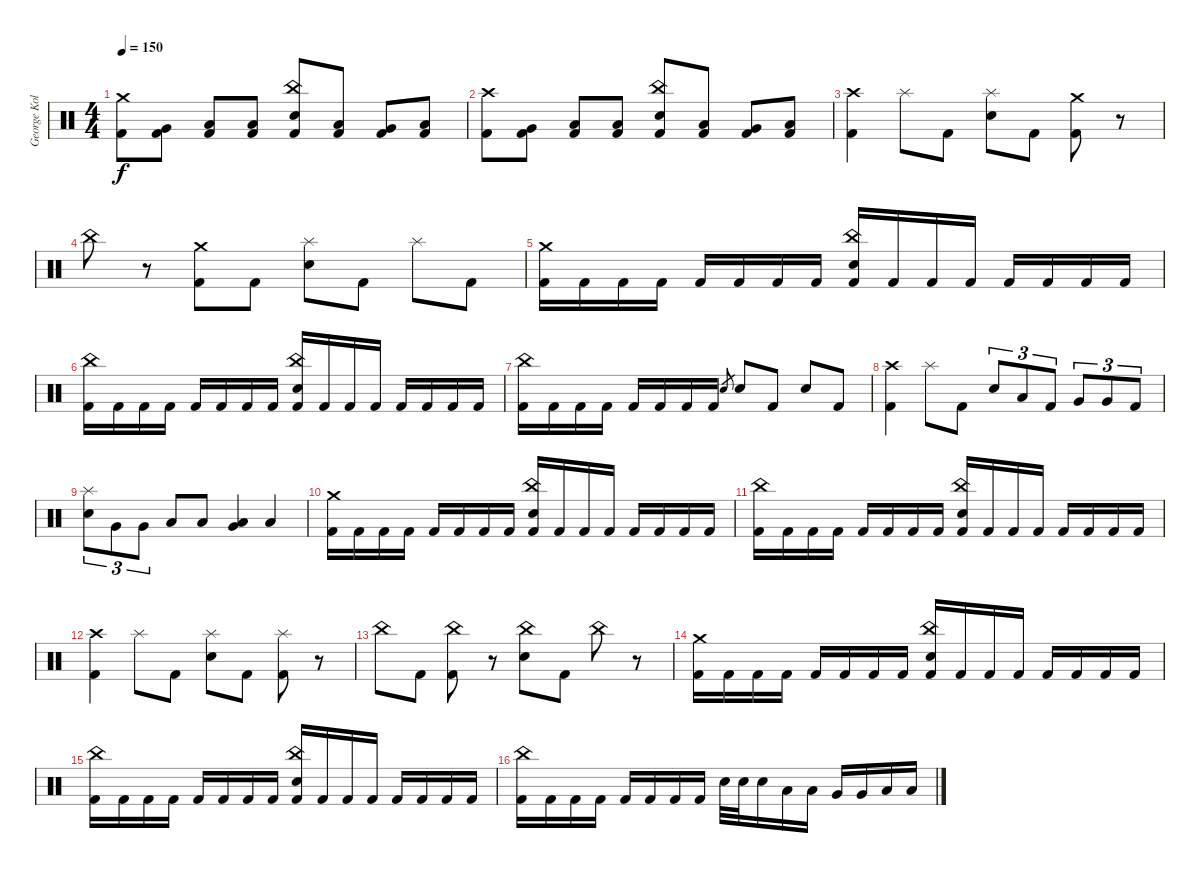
\track ("George Kollias" "George Kol") {instrument percussion}
\staff {score}
\articulation defaults
\ts (4 4)
\tempo 150
\clef neutral
\ks c
("Crash medium (hit)" "Kick (hit) 2").8{dy f} ("Very Low Tom (hit)" "Kick (hit) 2").8 ("Low Floor Tom (hit)" "Kick (hit) 2").8 ("Low Floor Tom (hit)" "Kick (hit) 2").8 ("China (hit)" "Electric Snare (hit)" "Kick (hit) 2").8 ("Low Floor Tom (hit)" "Kick (hit) 2").8 ("Very Low Tom (hit)" "Kick (hit) 2").8 ("Low Floor Tom (hit)" "Kick (hit) 2").8 |
("Crash high (hit)" "Kick (hit) 2").8 ("Very Low Tom (hit)" "Kick (hit) 2").8 ("Low Floor Tom (hit)" "Kick (hit) 2").8 ("Low Floor Tom (hit)" "Kick (hit) 2").8 ("China (hit)" "Electric Snare (hit)" "Kick (hit) 2").8 ("Low Floor Tom (hit)" "Kick (hit) 2").8 ("Very Low Tom (hit)" "Kick (hit) 2").8 ("Low Floor Tom (hit)" "Kick (hit) 2").8 |
("Crash high (hit)" "Kick (hit) 2").4 "Splash (hit)".8 "Kick (hit) 2".8 ("Splash (hit)" "Electric Snare (hit)").8 "Kick (hit) 2".8 ("Crash medium (hit)" "Kick (hit) 2").8 r.8 |
"China (hit)".8 r.8 ("Crash medium (hit)" "Kick (hit) 2").8 "Kick (hit) 2".8 ("Splash (hit)" "Electric Snare (hit)").8 "Kick (hit) 2".8 "Splash (hit)".8 "Kick (hit) 2".8 |
("Crash medium (hit)" "Kick (hit) 2").16 "Kick (hit) 2".16 "Kick (hit) 2".16 "Kick (hit) 2".16 "Kick (hit) 2".16 "Kick (hit) 2".16 "Kick (hit) 2".16 "Kick (hit) 2".16 ("China (hit)" "Electric Snare (hit)" "Kick (hit) 2").16 "Kick (hit) 2".16 "Kick (hit) 2".16 "Kick (hit) 2".16 "Kick (hit) 2".16 "Kick (hit) 2".16 "Kick (hit) 2".16 "Kick (hit) 2".16 |
("China (hit)" "Kick (hit) 2").16 "Kick (hit) 2".16 "Kick (hit) 2".16 "Kick (hit) 2".16 "Kick (hit) 2".16 "Kick (hit) 2".16 "Kick (hit) 2".16 "Kick (hit) 2".16 ("China (hit)" "Electric Snare (hit)" "Kick (hit) 2").16 "Kick (hit) 2".16 "Kick (hit) 2".16 "Kick (hit) 2".16 "Kick (hit) 2".16 "Kick (hit) 2".16 "Kick (hit) 2".16 "Kick (hit) 2".16 |
("China (hit)" "Kick (hit) 2").16 "Kick (hit) 2".16 "Kick (hit) 2".16 "Kick (hit) 2".16 "Kick (hit) 2".16 "Kick (hit) 2".16 "Kick (hit) 2".16 "Kick (hit) 2".16 "Electric Snare (hit)".8{gr} "Electric Snare (hit)".8 "Kick (hit) 2".8 "Electric Snare (hit)".8 "Kick (hit) 2".8 |
("Crash high (hit)" "Kick (hit) 2").4 "Splash (hit)".8 "Kick (hit) 2".8 "Electric Snare (hit)".8{tu (3 2)} "Low Tom (hit)".8{tu (3 2)} "Kick (hit) 2".8{tu (3 2)} "Very Low Tom (hit)".8{tu (3 2)} "Very Low Tom (hit)".8{tu (3 2)} "Kick (hit) 2".8{tu (3 2)} |
("Splash (hit)" "Electric Snare (hit)").8{tu (3 2)} "Very Low Tom (hit)".8{tu (3 2)} "Very Low Tom (hit)".8{tu (3 2)} "Low Floor Tom (hit)".8 "Low Floor Tom (hit)".8 ("Very Low Tom (hit)" "Low Floor Tom (hit)").4 "Low Floor Tom (hit)".4 |
("Crash medium (hit)" "Kick (hit) 2").16 "Kick (hit) 2".16 "Kick (hit) 2".16 "Kick (hit) 2".16 "Kick (hit) 2".16 "Kick (hit) 2".16 "Kick (hit) 2".16 "Kick (hit) 2".16 ("China (hit)" "Electric Snare (hit)" "Kick (hit) 2").16 "Kick (hit) 2".16 "Kick (hit) 2".16 "Kick (hit) 2".16 "Kick (hit) 2".16 "Kick (hit) 2".16 "Kick (hit) 2".16 "Kick (hit) 2".16 |
("China (hit)" "Kick (hit) 2").16 "Kick (hit) 2".16 "Kick (hit) 2".16 "Kick (hit) 2".16 "Kick (hit) 2".16 "Kick (hit) 2".16 "Kick (hit) 2".16 "Kick (hit) 2".16 ("China (hit)" "Electric Snare (hit)" "Kick (hit) 2").16 "Kick (hit) 2".16 "Kick (hit) 2".16 "Kick (hit) 2".16 "Kick (hit) 2".16 "Kick (hit) 2".16 "Kick (hit) 2".16 "Kick (hit) 2".16 |
("Crash high (hit)" "Kick (hit) 2").4 "Splash (hit)".8 "Kick (hit) 2".8 ("Splash (hit)" "Electric Snare (hit)").8 "Kick (hit) 2".8 ("Splash (hit)" "Kick (hit) 2").8 r.8 |
"China (hit)".8 "Kick (hit) 2".8 ("China (hit)" "Kick (hit) 2").8 r.8 ("China (hit)" "Electric Snare (hit)").8 "Kick (hit) 2".8 "China (hit)".8 r.8 |
("Crash medium (hit)" "Kick (hit) 2").16 "Kick (hit) 2".16 "Kick (hit) 2".16 "Kick (hit) 2".16 "Kick (hit) 2".16 "Kick (hit) 2".16 "Kick (hit) 2".16 "Kick (hit) 2".16 ("China (hit)" "Electric Snare (hit)" "Kick (hit) 2").16 "Kick (hit) 2".16 "Kick (hit) 2".16 "Kick (hit) 2".16 "Kick (hit) 2".16 "Kick (hit) 2".16 "Kick (hit) 2".16 "Kick (hit) 2".16 |
("China (hit)" "Kick (hit) 2").16 "Kick (hit) 2".16 "Kick (hit) 2".16 "Kick (hit) 2".16 "Kick (hit) 2".16 "Kick (hit) 2".16 "Kick (hit) 2".16 "Kick (hit) 2".16 ("China (hit)" "Electric Snare (hit)" "Kick (hit) 2").16 "Kick (hit) 2".16 "Kick (hit) 2".16 "Kick (hit) 2".16 "Kick (hit) 2".16 "Kick (hit) 2".16 "Kick (hit) 2".16 "Kick (hit) 2".16 |
("China (hit)" "Kick (hit) 2").16 "Kick (hit) 2".16 "Kick (hit) 2".16 "Kick (hit) 2".16 "Kick (hit) 2".16 "Kick (hit) 2".16 "Kick (hit) 2".16 "Kick (hit) 2".16 "Electric Snare (hit)".32 "Electric Snare (hit)".32 "Electric Snare (hit)".16 "Low Tom (hit)".16 "Low Tom (hit)".16 "Very Low Tom (hit)".16 "Very Low Tom (hit)".16 "Low Floor Tom (hit)".16 "Low Floor Tom (hit)".16
